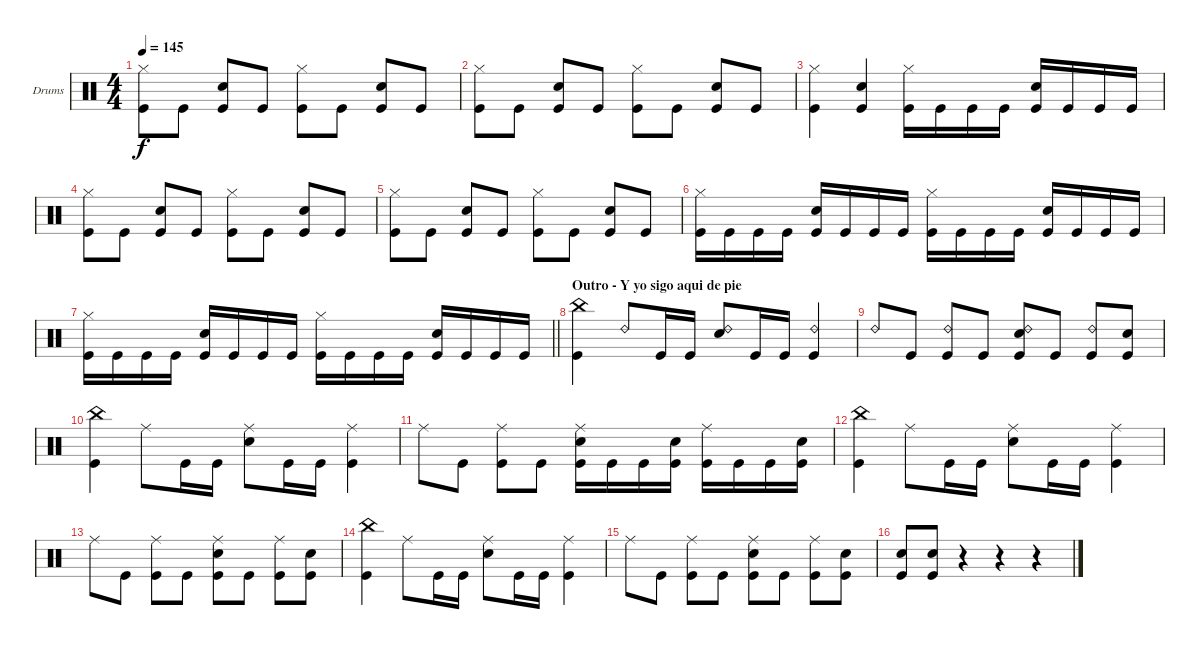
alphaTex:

\bracketExtendMode groupsimilarinstruments
\firstSystemTrackNameOrientation horizontal
\otherSystemsTrackNameOrientation horizontal
\track ("Drumkit" "Drums") {instrument percussion}
\staff {score}
\articulation defaults
\ts (4 4)
\tempo 145
\clef neutral
\ks c
("Hi-Hat (closed)" "Kick (hit)").8{dy f} "Kick (hit)".8 ("Snare (hit) 2" "Kick (hit)").8 "Kick (hit)".8 ("Hi-Hat (closed)" "Kick (hit)").8 "Kick (hit)".8 ("Snare (hit) 2" "Kick (hit)").8 "Kick (hit)".8 |
("Hi-Hat (closed)" "Kick (hit)").8 "Kick (hit)".8 ("Snare (hit) 2" "Kick (hit)").8 "Kick (hit)".8 ("Hi-Hat (closed)" "Kick (hit)").8 "Kick (hit)".8 ("Snare (hit) 2" "Kick (hit)").8 "Kick (hit)".8 |
("Hi-Hat (closed)" "Kick (hit)").4 ("Snare (hit) 2" "Kick (hit)").4 ("Hi-Hat (closed)" "Kick (hit)").16 "Kick (hit)".16 "Kick (hit)".16 "Kick (hit)".16 ("Snare (hit) 2" "Kick (hit)").16 "Kick (hit)".16 "Kick (hit)".16 "Kick (hit)".16 |
("Hi-Hat (closed)" "Kick (hit)").8 "Kick (hit)".8 ("Snare (hit) 2" "Kick (hit)").8 "Kick (hit)".8 ("Hi-Hat (closed)" "Kick (hit)").8 "Kick (hit)".8 ("Snare (hit) 2" "Kick (hit)").8 "Kick (hit)".8 |
("Hi-Hat (closed)" "Kick (hit)").8 "Kick (hit)".8 ("Snare (hit) 2" "Kick (hit)").8 "Kick (hit)".8 ("Hi-Hat (closed)" "Kick (hit)").8 "Kick (hit)".8 ("Snare (hit) 2" "Kick (hit)").8 "Kick (hit)".8 |
("Hi-Hat (closed)" "Kick (hit)").16 "Kick (hit)".16 "Kick (hit)".16 "Kick (hit)".16 ("Snare (hit) 2" "Kick (hit)").16 "Kick (hit)".16 "Kick (hit)".16 "Kick (hit)".16 ("Hi-Hat (closed)" "Kick (hit)").16 "Kick (hit)".16 "Kick (hit)".16 "Kick (hit)".16 ("Snare (hit) 2" "Kick (hit)").16 "Kick (hit)".16 "Kick (hit)".16 "Kick (hit)".16 |
\barLineRight lightlight
("Hi-Hat (closed)" "Kick (hit)").16 "Kick (hit)".16 "Kick (hit)".16 "Kick (hit)".16 ("Snare (hit) 2" "Kick (hit)").16 "Kick (hit)".16 "Kick (hit)".16 "Kick (hit)".16 ("Hi-Hat (closed)" "Kick (hit)").16 "Kick (hit)".16 "Kick (hit)".16 "Kick (hit)".16 ("Snare (hit) 2" "Kick (hit)").16 "Kick (hit)".16 "Kick (hit)".16 "Kick (hit)".16 |
\section ("" "Outro - Y yo sigo aqui de pie")
("China (hit)" "Kick (hit)").4 "Ride (bell) 2".8 "Kick (hit)".16 "Kick (hit)".16 ("Ride (bell) 2" "Snare (hit) 2").8 "Kick (hit)".16 "Kick (hit)".16 ("Ride (bell) 2" "Kick (hit)").4 |
"Ride (bell) 2".8 "Kick (hit)".8 ("Ride (bell) 2" "Kick (hit)").8 "Kick (hit)".8 ("Ride (bell) 2" "Snare (hit) 2" "Kick (hit)").8 "Kick (hit)".8 ("Ride (bell) 2" "Kick (hit)").8 ("Snare (hit) 2" "Kick (hit)").8 |
("China (hit)" "Kick (hit)").4 "Ride (middle)".8 "Kick (hit)".16 "Kick (hit)".16 ("Ride (middle)" "Snare (hit) 2").8 "Kick (hit)".16 "Kick (hit)".16 ("Ride (middle)" "Kick (hit)").4 |
"Ride (middle)".8 "Kick (hit)".8 ("Ride (middle)" "Kick (hit)").8 "Kick (hit)".8 ("Ride (middle)" "Snare (hit) 2" "Kick (hit)").16 "Kick (hit)".16 "Kick (hit)".16 ("Snare (hit) 2" "Kick (hit)").16 ("Ride (middle)" "Kick (hit)").16 "Kick (hit)".16 "Kick (hit)".16 ("Snare (hit) 2" "Kick (hit)").16 |
("China (hit)" "Kick (hit)").4 "Ride (middle)".8 "Kick (hit)".16 "Kick (hit)".16 ("Ride (middle)" "Snare (hit) 2").8 "Kick (hit)".16 "Kick (hit)".16 ("Ride (middle)" "Kick (hit)").4 |
"Ride (middle)".8 "Kick (hit)".8 ("Ride (middle)" "Kick (hit)").8 "Kick (hit)".8 ("Ride (middle)" "Snare (hit) 2" "Kick (hit)").8 "Kick (hit)".8 ("Ride (middle)" "Kick (hit)").8 ("Snare (hit) 2" "Kick (hit)").8 |
("China (hit)" "Kick (hit)").4 "Ride (middle)".8 "Kick (hit)".16 "Kick (hit)".16 ("Ride (middle)" "Snare (hit) 2").8 "Kick (hit)".16 "Kick (hit)".16 ("Ride (middle)" "Kick (hit)").4 |
"Ride (middle)".8 "Kick (hit)".8 ("Ride (middle)" "Kick (hit)").8 "Kick (hit)".8 ("Ride (middle)" "Snare (hit) 2" "Kick (hit)").8 "Kick (hit)".8 ("Ride (middle)" "Kick (hit)").8 ("Snare (hit) 2" "Kick (hit)").8 |
("Snare (hit) 2" "Kick (hit)").8 ("Snare (hit) 2" "Kick (hit)").8 r.4 r.4 r.4
